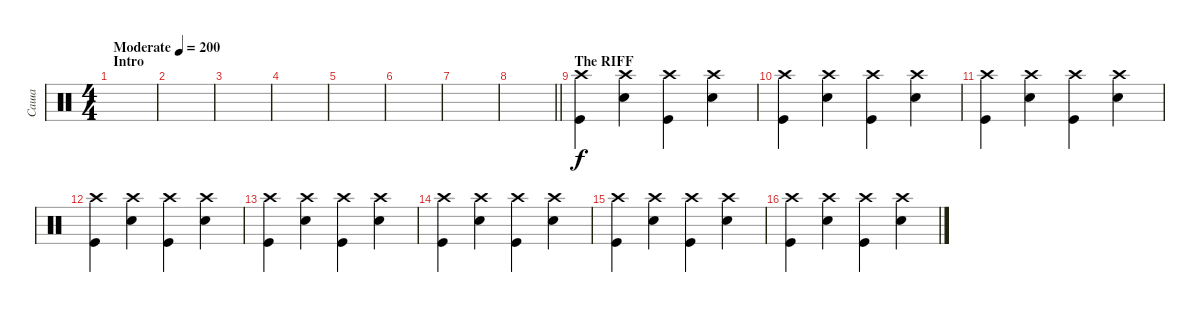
\track ("Саша" "Саша") {instrument percussion}
\staff {score}
\articulation defaults
\ts (4 4)
\section ("" "Intro")
\tempo (200 "Moderate")
\clef neutral
\ks c
|
|
|
|
|
|
|
\barLineRight lightlight
|
\section ("" "The RIFF")
("Crash high (hit)" "Kick (hit)").4 ("Crash high (hit)" "Electric Snare (hit)").4 ("Crash high (hit)" "Kick (hit)").4 ("Crash high (hit)" "Electric Snare (hit)").4 |
("Crash high (hit)" "Kick (hit)").4 ("Crash high (hit)" "Electric Snare (hit)").4 ("Crash high (hit)" "Kick (hit)").4 ("Crash high (hit)" "Electric Snare (hit)").4 |
("Crash high (hit)" "Kick (hit)").4 ("Crash high (hit)" "Electric Snare (hit)").4 ("Crash high (hit)" "Kick (hit)").4 ("Crash high (hit)" "Electric Snare (hit)").4 |
("Crash high (hit)" "Kick (hit)").4 ("Crash high (hit)" "Electric Snare (hit)").4 ("Crash high (hit)" "Kick (hit)").4 ("Crash high (hit)" "Electric Snare (hit)").4 |
("Crash high (hit)" "Kick (hit)").4 ("Crash high (hit)" "Electric Snare (hit)").4 ("Crash high (hit)" "Kick (hit)").4 ("Crash high (hit)" "Electric Snare (hit)").4 |
("Crash high (hit)" "Kick (hit)").4 ("Crash high (hit)" "Electric Snare (hit)").4 ("Crash high (hit)" "Kick (hit)").4 ("Crash high (hit)" "Electric Snare (hit)").4 |
("Crash high (hit)" "Kick (hit)").4 ("Crash high (hit)" "Electric Snare (hit)").4 ("Crash high (hit)" "Kick (hit)").4 ("Crash high (hit)" "Electric Snare (hit)").4 |
("Crash high (hit)" "Kick (hit)").4 ("Crash high (hit)" "Electric Snare (hit)").4 ("Crash high (hit)" "Kick (hit)").4 ("Crash high (hit)" "Electric Snare (hit)").4
